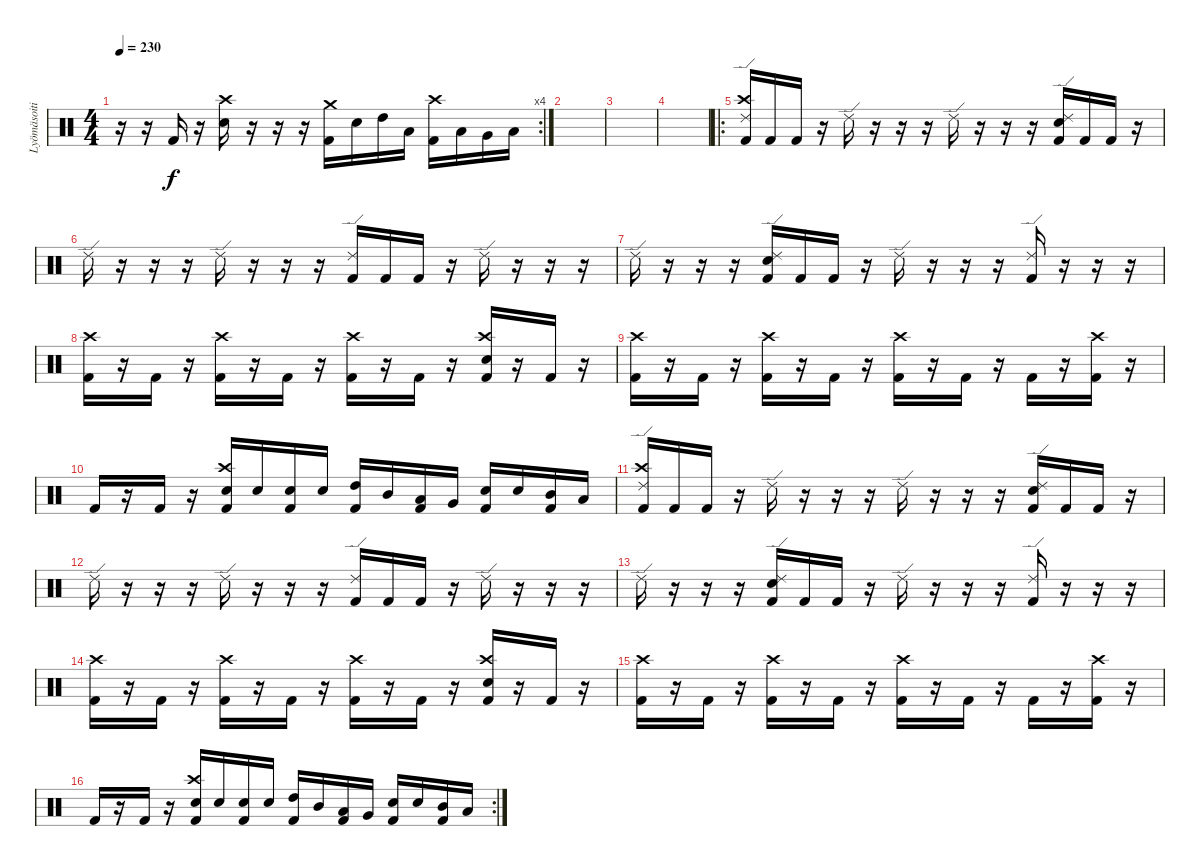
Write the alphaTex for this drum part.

\track ("Lyömäsoitin" "Lyömäsoiti") {instrument percussion}
\staff {score}
\articulation defaults
\rc 4
\ts (4 4)
\tempo 230
\clef neutral
\ks c
r.16{dy f} r.16 "Kick (hit) 2".16 r.16 ("Crash high (hit)" "Snare (hit) 2").16 r.16 r.16 r.16 ("Crash medium (hit)" "Kick (hit) 2").16 "Snare (hit) 2".16 "High Tom (hit)".16 "Low Tom (hit)".16 ("Crash high (hit)" "Kick (hit) 2").16 "Low Tom (hit)".16 "Very Low Tom (hit)".16 "Low Floor Tom (hit)".16 |
|
|
|
\ro
("Crash high (hit)" "Ride (edge) 2" "Kick (hit) 2").16 "Kick (hit) 2".16 "Kick (hit) 2".16 r.16 "Ride (edge) 2".16 r.16 r.16 r.16 "Ride (edge) 2".16 r.16 r.16 r.16 ("Ride (edge) 2" "Snare (hit) 2" "Kick (hit) 2").16 "Kick (hit) 2".16 "Kick (hit) 2".16 r.16 |
"Ride (edge) 2".16 r.16 r.16 r.16 "Ride (edge) 2".16 r.16 r.16 r.16 ("Ride (edge) 2" "Kick (hit) 2").16 "Kick (hit) 2".16 "Kick (hit) 2".16 r.16 "Ride (edge) 2".16 r.16 r.16 r.16 |
"Ride (edge) 2".16 r.16 r.16 r.16 ("Ride (edge) 2" "Snare (hit) 2" "Kick (hit) 2").16 "Kick (hit) 2".16 "Kick (hit) 2".16 r.16 "Ride (edge) 2".16 r.16 r.16 r.16 ("Ride (edge) 2" "Kick (hit) 2").16 r.16 r.16 r.16 |
("Crash high (hit)" "Kick (hit) 2").16 r.16 "Kick (hit) 2".16 r.16 ("Crash high (hit)" "Kick (hit) 2").16 r.16 "Kick (hit) 2".16 r.16 ("Crash high (hit)" "Kick (hit) 2").16 r.16 "Kick (hit) 2".16 r.16 ("Crash high (hit)" "Snare (hit) 2" "Kick (hit) 2").16 r.16 "Kick (hit) 2".16 r.16 |
("Crash high (hit)" "Kick (hit) 2").16 r.16 "Kick (hit) 2".16 r.16 ("Crash high (hit)" "Kick (hit) 2").16 r.16 "Kick (hit) 2".16 r.16 ("Crash high (hit)" "Kick (hit) 2").16 r.16 "Kick (hit) 2".16 r.16 "Kick (hit) 2".16 r.16 ("Crash high (hit)" "Kick (hit) 2").16 r.16 |
"Kick (hit) 2".16 r.16 "Kick (hit) 2".16 r.16 ("Crash high (hit)" "Snare (hit) 2" "Kick (hit) 2").16 "Snare (hit) 2".16 ("Snare (hit) 2" "Kick (hit) 2").16 "Snare (hit) 2".16 ("High Tom (hit)" "Kick (hit) 2").16 "Mid Tom (hit)".16 ("Low Tom (hit)" "Kick (hit) 2").16 "Very Low Tom (hit)".16 ("Snare (hit) 2" "Kick (hit) 2").16 "Snare (hit) 2".16 ("Mid Tom (hit)" "Kick (hit) 2").16 "Low Floor Tom (hit)".16 |
("Crash high (hit)" "Ride (edge) 2" "Kick (hit) 2").16 "Kick (hit) 2".16 "Kick (hit) 2".16 r.16 "Ride (edge) 2".16 r.16 r.16 r.16 "Ride (edge) 2".16 r.16 r.16 r.16 ("Ride (edge) 2" "Snare (hit) 2" "Kick (hit) 2").16 "Kick (hit) 2".16 "Kick (hit) 2".16 r.16 |
"Ride (edge) 2".16 r.16 r.16 r.16 "Ride (edge) 2".16 r.16 r.16 r.16 ("Ride (edge) 2" "Kick (hit) 2").16 "Kick (hit) 2".16 "Kick (hit) 2".16 r.16 "Ride (edge) 2".16 r.16 r.16 r.16 |
"Ride (edge) 2".16 r.16 r.16 r.16 ("Ride (edge) 2" "Snare (hit) 2" "Kick (hit) 2").16 "Kick (hit) 2".16 "Kick (hit) 2".16 r.16 "Ride (edge) 2".16 r.16 r.16 r.16 ("Ride (edge) 2" "Kick (hit) 2").16 r.16 r.16 r.16 |
("Crash high (hit)" "Kick (hit) 2").16 r.16 "Kick (hit) 2".16 r.16 ("Crash high (hit)" "Kick (hit) 2").16 r.16 "Kick (hit) 2".16 r.16 ("Crash high (hit)" "Kick (hit) 2").16 r.16 "Kick (hit) 2".16 r.16 ("Crash high (hit)" "Snare (hit) 2" "Kick (hit) 2").16 r.16 "Kick (hit) 2".16 r.16 |
("Crash high (hit)" "Kick (hit) 2").16 r.16 "Kick (hit) 2".16 r.16 ("Crash high (hit)" "Kick (hit) 2").16 r.16 "Kick (hit) 2".16 r.16 ("Crash high (hit)" "Kick (hit) 2").16 r.16 "Kick (hit) 2".16 r.16 "Kick (hit) 2".16 r.16 ("Crash high (hit)" "Kick (hit) 2").16 r.16 |
\rc 2 "Kick (hit) 2".16
r.16 "Kick (hit) 2".16 r.16 ("Crash high (hit)" "Snare (hit) 2" "Kick (hit) 2").16 "Snare (hit) 2".16 ("Snare (hit) 2" "Kick (hit) 2").16 "Snare (hit) 2".16 ("High Tom (hit)" "Kick (hit) 2").16 "Mid Tom (hit)".16 ("Low Tom (hit)" "Kick (hit) 2").16 "Very Low Tom (hit)".16 ("Snare (hit) 2" "Kick (hit) 2").16 "Snare (hit) 2".16 ("Mid Tom (hit)" "Kick (hit) 2").16 "Low Floor Tom (hit)".16
